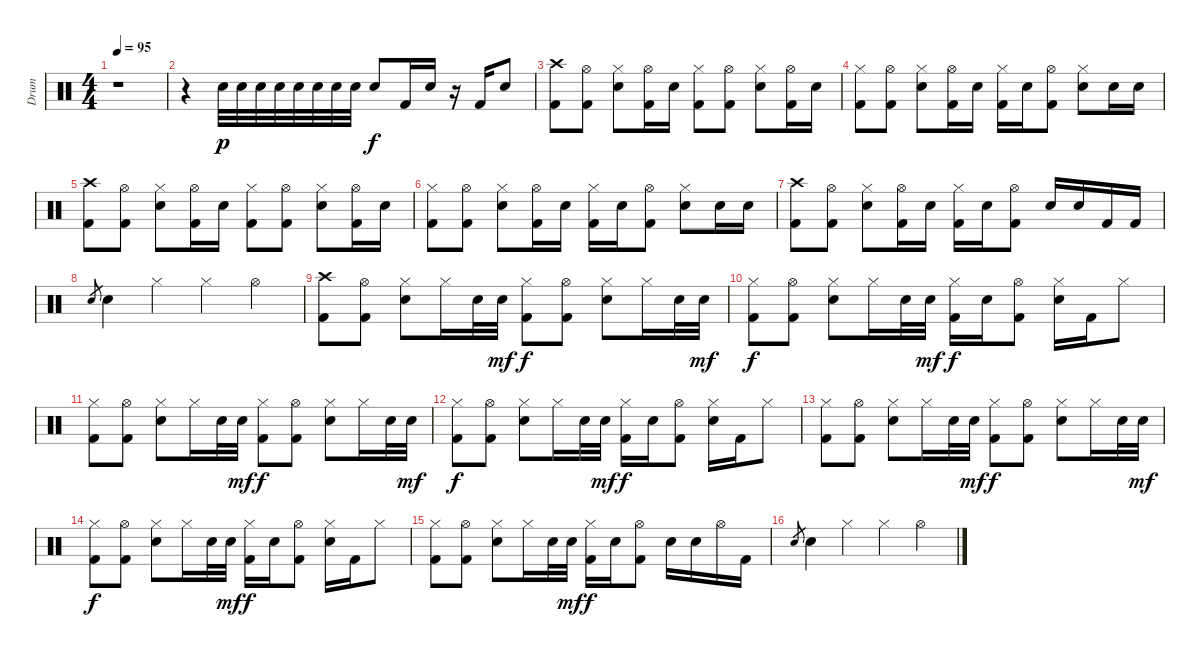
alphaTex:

\track ("Drum" "Drum") {instrument percussion}
\staff {score}
\articulation defaults
\ts (4 4)
\tempo 95
\clef neutral
\ks c
r.1{dy p} |
r.4 "Electric Snare (hit)".32 "Electric Snare (hit)".32 "Electric Snare (hit)".32 "Electric Snare (hit)".32 "Electric Snare (hit)".32 "Electric Snare (hit)".32 "Electric Snare (hit)".32 "Electric Snare (hit)".32 "Electric Snare (hit)".8{dy f} "Kick (hit) 2".16 "Electric Snare (hit)".16 r.16 "Kick (hit) 2".16 "Electric Snare (hit)".8 |
("Crash high (hit)" "Kick (hit) 2").8 ("Hi-Hat (open)" "Kick (hit) 2").8 ("Hi-Hat (closed)" "Electric Snare (hit)").8 ("Hi-Hat (open)" "Kick (hit) 2").16 "Electric Snare (hit)".16 ("Hi-Hat (closed)" "Kick (hit) 2").8 ("Hi-Hat (open)" "Kick (hit) 2").8 ("Hi-Hat (closed)" "Electric Snare (hit)").8 ("Hi-Hat (open)" "Kick (hit) 2").16 "Electric Snare (hit)".16 |
("Hi-Hat (closed)" "Kick (hit) 2").8 ("Hi-Hat (open)" "Kick (hit) 2").8 ("Hi-Hat (closed)" "Electric Snare (hit)").8 ("Hi-Hat (open)" "Kick (hit) 2").16 "Electric Snare (hit)".16 ("Hi-Hat (closed)" "Kick (hit) 2").16 "Electric Snare (hit)".16 ("Hi-Hat (open)" "Kick (hit) 2").8 ("Hi-Hat (closed)" "Electric Snare (hit)").8 "Electric Snare (hit)".16 "Electric Snare (hit)".16 |
("Crash high (hit)" "Kick (hit) 2").8 ("Hi-Hat (open)" "Kick (hit) 2").8 ("Hi-Hat (closed)" "Electric Snare (hit)").8 ("Hi-Hat (open)" "Kick (hit) 2").16 "Electric Snare (hit)".16 ("Hi-Hat (closed)" "Kick (hit) 2").8 ("Hi-Hat (open)" "Kick (hit) 2").8 ("Hi-Hat (closed)" "Electric Snare (hit)").8 ("Hi-Hat (open)" "Kick (hit) 2").16 "Electric Snare (hit)".16 |
("Hi-Hat (closed)" "Kick (hit) 2").8 ("Hi-Hat (open)" "Kick (hit) 2").8 ("Hi-Hat (closed)" "Electric Snare (hit)").8 ("Hi-Hat (open)" "Kick (hit) 2").16 "Electric Snare (hit)".16 ("Hi-Hat (closed)" "Kick (hit) 2").16 "Electric Snare (hit)".16 ("Hi-Hat (open)" "Kick (hit) 2").8 ("Hi-Hat (closed)" "Electric Snare (hit)").8 "Electric Snare (hit)".16 "Electric Snare (hit)".16 |
("Crash high (hit)" "Kick (hit) 2").8 ("Hi-Hat (open)" "Kick (hit) 2").8 ("Hi-Hat (closed)" "Electric Snare (hit)").8 ("Hi-Hat (open)" "Kick (hit) 2").16 "Electric Snare (hit)".16 ("Hi-Hat (closed)" "Kick (hit) 2").16 "Electric Snare (hit)".16 ("Hi-Hat (open)" "Kick (hit) 2").8 "Electric Snare (hit)".16 "Electric Snare (hit)".16 "Kick (hit) 2".16 "Kick (hit) 2".16 |
"Electric Snare (hit)".8{gr} "Electric Snare (hit)".4 "Hi-Hat (closed)".4 "Hi-Hat (closed)".4 "Hi-Hat (open)".4 |
("Crash high (hit)" "Kick (hit) 2").8 ("Hi-Hat (open)" "Kick (hit) 2").8 ("Hi-Hat (closed)" "Electric Snare (hit)").8 "Hi-Hat (closed)".16 "Electric Snare (hit)".32 "Electric Snare (hit)".32{dy mf} ("Hi-Hat (closed)" "Kick (hit) 2").8{dy f} ("Hi-Hat (open)" "Kick (hit) 2").8 ("Hi-Hat (closed)" "Electric Snare (hit)").8 "Hi-Hat (closed)".16 "Electric Snare (hit)".32 "Electric Snare (hit)".32{dy mf} |
("Hi-Hat (closed)" "Kick (hit) 2").8{dy f} ("Hi-Hat (open)" "Kick (hit) 2").8 ("Hi-Hat (closed)" "Electric Snare (hit)").8 "Hi-Hat (closed)".16 "Electric Snare (hit)".32 "Electric Snare (hit)".32{dy mf} ("Hi-Hat (closed)" "Kick (hit) 2").16{dy f} "Electric Snare (hit)".16 ("Hi-Hat (open)" "Kick (hit) 2").8 ("Hi-Hat (closed)" "Electric Snare (hit)").16 "Kick (hit) 2".16 "Hi-Hat (closed)".8 |
("Hi-Hat (closed)" "Kick (hit) 2").8 ("Hi-Hat (open)" "Kick (hit) 2").8 ("Hi-Hat (closed)" "Electric Snare (hit)").8 "Hi-Hat (closed)".16 "Electric Snare (hit)".32 "Electric Snare (hit)".32{dy mf} ("Hi-Hat (closed)" "Kick (hit) 2").8{dy f} ("Hi-Hat (open)" "Kick (hit) 2").8 ("Hi-Hat (closed)" "Electric Snare (hit)").8 "Hi-Hat (closed)".16 "Electric Snare (hit)".32 "Electric Snare (hit)".32{dy mf} |
("Hi-Hat (closed)" "Kick (hit) 2").8{dy f} ("Hi-Hat (open)" "Kick (hit) 2").8 ("Hi-Hat (closed)" "Electric Snare (hit)").8 "Hi-Hat (closed)".16 "Electric Snare (hit)".32 "Electric Snare (hit)".32{dy mf} ("Hi-Hat (closed)" "Kick (hit) 2").16{dy f} "Electric Snare (hit)".16 ("Hi-Hat (open)" "Kick (hit) 2").8 ("Hi-Hat (closed)" "Electric Snare (hit)").16 "Kick (hit) 2".16 "Hi-Hat (closed)".8 |
("Hi-Hat (closed)" "Kick (hit) 2").8 ("Hi-Hat (open)" "Kick (hit) 2").8 ("Hi-Hat (closed)" "Electric Snare (hit)").8 "Hi-Hat (closed)".16 "Electric Snare (hit)".32 "Electric Snare (hit)".32{dy mf} ("Hi-Hat (closed)" "Kick (hit) 2").8{dy f} ("Hi-Hat (open)" "Kick (hit) 2").8 ("Hi-Hat (closed)" "Electric Snare (hit)").8 "Hi-Hat (closed)".16 "Electric Snare (hit)".32 "Electric Snare (hit)".32{dy mf} |
("Hi-Hat (closed)" "Kick (hit) 2").8{dy f} ("Hi-Hat (open)" "Kick (hit) 2").8 ("Hi-Hat (closed)" "Electric Snare (hit)").8 "Hi-Hat (closed)".16 "Electric Snare (hit)".32 "Electric Snare (hit)".32{dy mf} ("Hi-Hat (closed)" "Kick (hit) 2").16{dy f} "Electric Snare (hit)".16 ("Hi-Hat (open)" "Kick (hit) 2").8 ("Hi-Hat (closed)" "Electric Snare (hit)").16 "Kick (hit) 2".16 "Hi-Hat (closed)".8 |
("Hi-Hat (closed)" "Kick (hit) 2").8 ("Hi-Hat (open)" "Kick (hit) 2").8 ("Hi-Hat (closed)" "Electric Snare (hit)").8 "Hi-Hat (closed)".16 "Electric Snare (hit)".32 "Electric Snare (hit)".32{dy mf} ("Hi-Hat (closed)" "Kick (hit) 2").16{dy f} "Electric Snare (hit)".16 ("Hi-Hat (open)" "Kick (hit) 2").8 "Electric Snare (hit)".16 "Electric Snare (hit)".16 "Hi-Hat (open)".16 "Kick (hit) 2".16 |
"Electric Snare (hit)".8{gr} "Electric Snare (hit)".4 "Hi-Hat (closed)".4 "Hi-Hat (closed)".4 "Hi-Hat (open)".4
